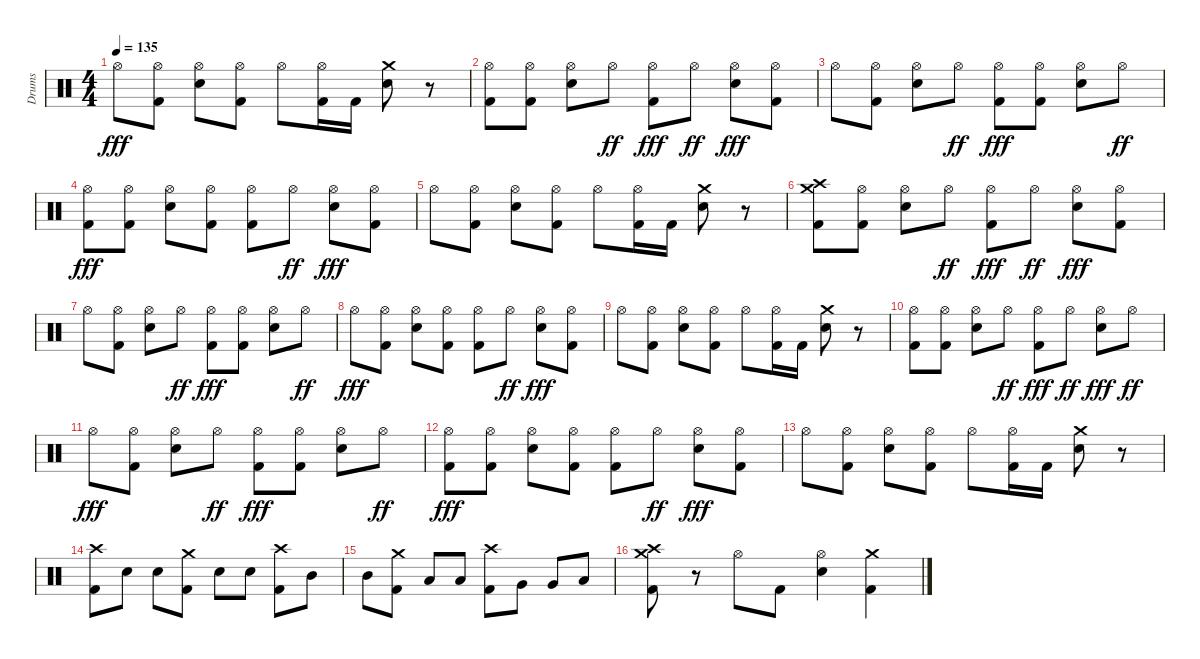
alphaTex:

\track ("Drums" "Drums") {instrument percussion}
\staff {score}
\articulation defaults
\ts (4 4)
\tempo 135
\clef neutral
\ks c "Hi-Hat (open)".8{dy fff}
("Hi-Hat (open)" "Kick (hit) 2").8 ("Hi-Hat (open)" "Snare (hit) 2").8 ("Hi-Hat (open)" "Kick (hit) 2").8 "Hi-Hat (open)".8 ("Hi-Hat (open)" "Kick (hit) 2").16 "Kick (hit) 2".16 ("Crash medium (hit)" "Snare (hit) 2").8 r.8 |
("Hi-Hat (open)" "Kick (hit) 2").8 ("Hi-Hat (open)" "Kick (hit) 2").8 ("Hi-Hat (open)" "Snare (hit) 2").8 "Hi-Hat (open)".8{dy ff} ("Hi-Hat (open)" "Kick (hit) 2").8{dy fff} "Hi-Hat (open)".8{dy ff} ("Hi-Hat (open)" "Snare (hit) 2").8{dy fff} ("Hi-Hat (open)" "Kick (hit) 2").8 |
"Hi-Hat (open)".8 ("Hi-Hat (open)" "Kick (hit) 2").8 ("Hi-Hat (open)" "Snare (hit) 2").8 "Hi-Hat (open)".8{dy ff} ("Hi-Hat (open)" "Kick (hit) 2").8{dy fff} ("Hi-Hat (open)" "Kick (hit) 2").8 ("Hi-Hat (open)" "Snare (hit) 2").8 "Hi-Hat (open)".8{dy ff} |
("Hi-Hat (open)" "Kick (hit) 2").8{dy fff} ("Hi-Hat (open)" "Kick (hit) 2").8 ("Hi-Hat (open)" "Snare (hit) 2").8 ("Hi-Hat (open)" "Kick (hit) 2").8 ("Hi-Hat (open)" "Kick (hit) 2").8 "Hi-Hat (open)".8{dy ff} ("Hi-Hat (open)" "Snare (hit) 2").8{dy fff} ("Hi-Hat (open)" "Kick (hit) 2").8 |
"Hi-Hat (open)".8 ("Hi-Hat (open)" "Kick (hit) 2").8 ("Hi-Hat (open)" "Snare (hit) 2").8 ("Hi-Hat (open)" "Kick (hit) 2").8 "Hi-Hat (open)".8 ("Hi-Hat (open)" "Kick (hit) 2").16 "Kick (hit) 2".16 ("Crash medium (hit)" "Snare (hit) 2").8 r.8 |
("Crash high (hit)" "Crash medium (hit)" "Kick (hit) 2").8 ("Hi-Hat (open)" "Kick (hit) 2").8 ("Hi-Hat (open)" "Snare (hit) 2").8 "Hi-Hat (open)".8{dy ff} ("Hi-Hat (open)" "Kick (hit) 2").8{dy fff} "Hi-Hat (open)".8{dy ff} ("Hi-Hat (open)" "Snare (hit) 2").8{dy fff} ("Hi-Hat (open)" "Kick (hit) 2").8 |
"Hi-Hat (open)".8 ("Hi-Hat (open)" "Kick (hit) 2").8 ("Hi-Hat (open)" "Snare (hit) 2").8 "Hi-Hat (open)".8{dy ff} ("Hi-Hat (open)" "Kick (hit) 2").8{dy fff} ("Hi-Hat (open)" "Kick (hit) 2").8 ("Hi-Hat (open)" "Snare (hit) 2").8 "Hi-Hat (open)".8{dy ff} |
"Hi-Hat (open)".8{dy fff} ("Hi-Hat (open)" "Kick (hit) 2").8 ("Hi-Hat (open)" "Snare (hit) 2").8 ("Hi-Hat (open)" "Kick (hit) 2").8 ("Hi-Hat (open)" "Kick (hit) 2").8 "Hi-Hat (open)".8{dy ff} ("Hi-Hat (open)" "Snare (hit) 2").8{dy fff} ("Hi-Hat (open)" "Kick (hit) 2").8 |
"Hi-Hat (open)".8 ("Hi-Hat (open)" "Kick (hit) 2").8 ("Hi-Hat (open)" "Snare (hit) 2").8 ("Hi-Hat (open)" "Kick (hit) 2").8 "Hi-Hat (open)".8 ("Hi-Hat (open)" "Kick (hit) 2").16 "Kick (hit) 2".16 ("Crash medium (hit)" "Snare (hit) 2").8 r.8 |
("Hi-Hat (open)" "Kick (hit) 2").8 ("Hi-Hat (open)" "Kick (hit) 2").8 ("Hi-Hat (open)" "Snare (hit) 2").8 "Hi-Hat (open)".8{dy ff} ("Hi-Hat (open)" "Kick (hit) 2").8{dy fff} "Hi-Hat (open)".8{dy ff} ("Hi-Hat (open)" "Snare (hit) 2").8{dy fff} "Hi-Hat (open)".8{dy ff} |
"Hi-Hat (open)".8{dy fff} ("Hi-Hat (open)" "Kick (hit) 2").8 ("Hi-Hat (open)" "Snare (hit) 2").8 "Hi-Hat (open)".8{dy ff} ("Hi-Hat (open)" "Kick (hit) 2").8{dy fff} ("Hi-Hat (open)" "Kick (hit) 2").8 ("Hi-Hat (open)" "Snare (hit) 2").8 "Hi-Hat (open)".8{dy ff} |
("Hi-Hat (open)" "Kick (hit) 2").8{dy fff} ("Hi-Hat (open)" "Kick (hit) 2").8 ("Hi-Hat (open)" "Snare (hit) 2").8 ("Hi-Hat (open)" "Kick (hit) 2").8 ("Hi-Hat (open)" "Kick (hit) 2").8 "Hi-Hat (open)".8{dy ff} ("Hi-Hat (open)" "Snare (hit) 2").8{dy fff} ("Hi-Hat (open)" "Kick (hit) 2").8 |
"Hi-Hat (open)".8 ("Hi-Hat (open)" "Kick (hit) 2").8 ("Hi-Hat (open)" "Snare (hit) 2").8 ("Hi-Hat (open)" "Kick (hit) 2").8 "Hi-Hat (open)".8 ("Hi-Hat (open)" "Kick (hit) 2").16 "Kick (hit) 2".16 ("Crash medium (hit)" "Snare (hit) 2").8 r.8 |
("Kick (hit) 2" "Crash high (hit)").8 "Snare (hit) 2".8 "Snare (hit) 2".8 ("Crash medium (hit)" "Kick (hit) 2").8 "Snare (hit) 2".8 "Snare (hit) 2".8 ("Crash high (hit)" "Kick (hit) 2").8 "Mid Tom (hit)".8 |
"Mid Tom (hit)".8 ("Crash medium (hit)" "Kick (hit) 2").8 "Low Tom (hit)".8 "Low Tom (hit)".8 ("Crash high (hit)" "Kick (hit) 2").8 "Very Low Tom (hit)".8 "Very Low Tom (hit)".8 "Low Floor Tom (hit)".8 |
("Crash medium (hit)" "Crash high (hit)" "Kick (hit) 2").8 r.8 "Hi-Hat (open)".8 "Kick (hit) 2".8 ("Hi-Hat (open)" "Snare (hit) 2").4 ("Crash medium (hit)" "Kick (hit) 2").4
